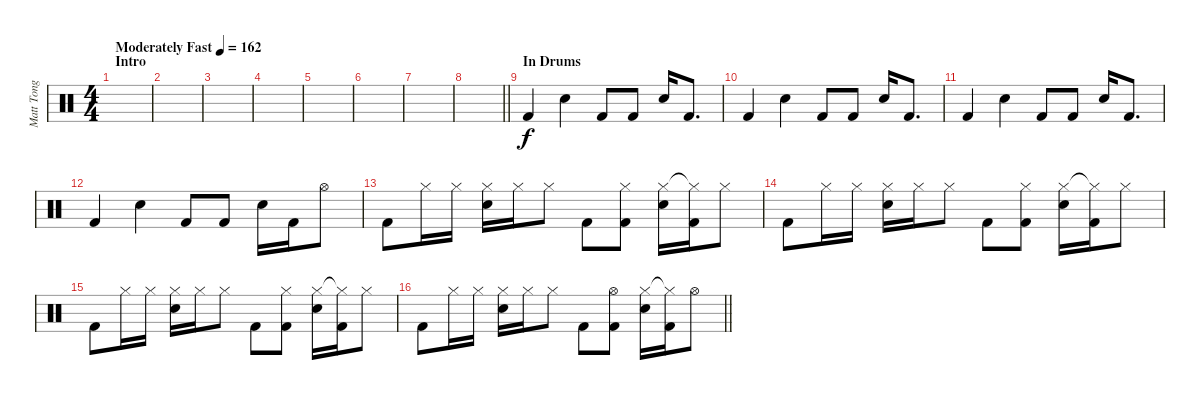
\track ("Matt Tong" "Matt Tong") {instrument percussion}
\staff {score}
\articulation defaults
\ts (4 4)
\section ("" "Intro")
\tempo (162 "Moderately Fast")
\clef neutral
\ks c
|
|
|
|
|
|
|
\barLineRight lightlight
|
\section ("" "In Drums")
"Kick (hit) 2".4 "Snare (hit) 2".4 "Kick (hit) 2".8 "Kick (hit) 2".8 "Snare (hit) 2".16 "Kick (hit) 2".8{d} |
"Kick (hit) 2".4 "Snare (hit) 2".4 "Kick (hit) 2".8 "Kick (hit) 2".8 "Snare (hit) 2".16 "Kick (hit) 2".8{d} |
"Kick (hit) 2".4 "Snare (hit) 2".4 "Kick (hit) 2".8 "Kick (hit) 2".8 "Snare (hit) 2".16 "Kick (hit) 2".8{d} |
"Kick (hit) 2".4 "Snare (hit) 2".4 "Kick (hit) 2".8 "Kick (hit) 2".8 "Snare (hit) 2".16 "Kick (hit) 2".16 "Hi-Hat (open)".8 |
"Kick (hit) 2".8 "Hi-Hat (closed)".16 "Hi-Hat (closed)".16 ("Hi-Hat (closed)" "Snare (hit) 2").16 "Hi-Hat (closed)".16 "Hi-Hat (closed)".8 "Kick (hit) 2".8 ("Hi-Hat (closed)" "Kick (hit) 2").8 ("Hi-Hat (closed)" "Snare (hit) 2").16 ("Hi-Hat (closed)"{t} "Kick (hit) 2").16 "Hi-Hat (closed)".8 |
"Kick (hit) 2".8 "Hi-Hat (closed)".16 "Hi-Hat (closed)".16 ("Hi-Hat (closed)" "Snare (hit) 2").16 "Hi-Hat (closed)".16 "Hi-Hat (closed)".8 "Kick (hit) 2".8 ("Hi-Hat (closed)" "Kick (hit) 2").8 ("Hi-Hat (closed)" "Snare (hit) 2").16 ("Hi-Hat (closed)"{t} "Kick (hit) 2").16 "Hi-Hat (closed)".8 |
"Kick (hit) 2".8 "Hi-Hat (closed)".16 "Hi-Hat (closed)".16 ("Hi-Hat (closed)" "Snare (hit) 2").16 "Hi-Hat (closed)".16 "Hi-Hat (closed)".8 "Kick (hit) 2".8 ("Hi-Hat (closed)" "Kick (hit) 2").8 ("Hi-Hat (closed)" "Snare (hit) 2").16 ("Hi-Hat (closed)"{t} "Kick (hit) 2").16 "Hi-Hat (closed)".8 |
\barLineRight lightlight "Kick (hit) 2".8 "Hi-Hat (closed)".16 "Hi-Hat (closed)".16
("Hi-Hat (closed)" "Snare (hit) 2").16 "Hi-Hat (closed)".16 "Hi-Hat (closed)".8 "Kick (hit) 2".8 ("Hi-Hat (open)" "Kick (hit) 2").8 ("Hi-Hat (closed)" "Snare (hit) 2").16 ("Hi-Hat (closed)"{t} "Kick (hit) 2").16 "Hi-Hat (open)".8
